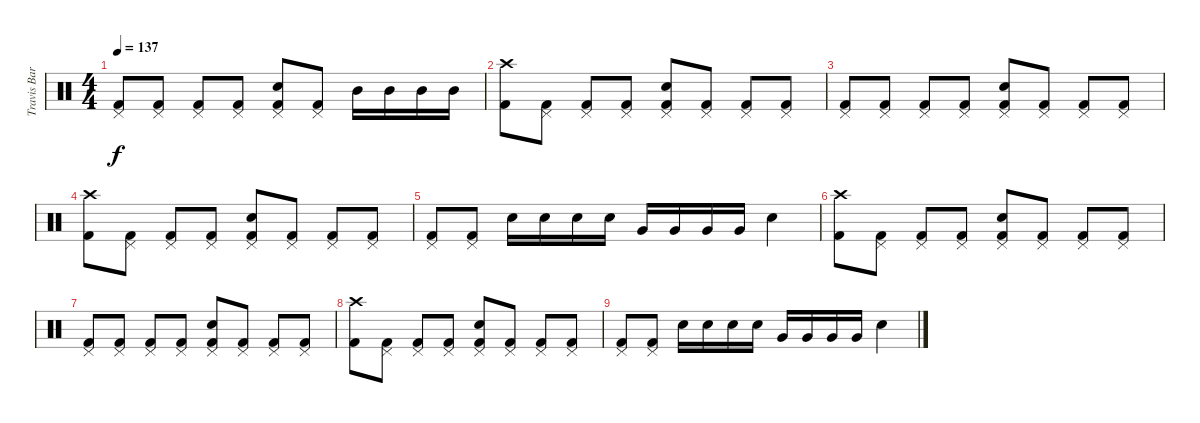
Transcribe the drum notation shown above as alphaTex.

\track ("Travis Barker" "Travis Bar") {instrument percussion}
\staff {score}
\articulation defaults
\ts (4 4)
\tempo 137
\clef neutral
\ks c
("Pedal Hi-Hat (hit)" "Kick (hit) 2").8{dy f} ("Pedal Hi-Hat (hit)" "Kick (hit) 2").8 ("Pedal Hi-Hat (hit)" "Kick (hit) 2").8 ("Pedal Hi-Hat (hit)" "Kick (hit) 2").8 ("Pedal Hi-Hat (hit)" "Snare (hit) 2" "Kick (hit) 2").8 ("Pedal Hi-Hat (hit)" "Kick (hit) 2").8 "Mid Tom (hit)".16 "Mid Tom (hit)".16 "Mid Tom (hit)".16 "Mid Tom (hit)".16 |
("Crash high (hit)" "Kick (hit) 2").8 ("Pedal Hi-Hat (hit)" "Kick (hit) 2").8 ("Pedal Hi-Hat (hit)" "Kick (hit) 2").8 ("Pedal Hi-Hat (hit)" "Kick (hit) 2").8 ("Pedal Hi-Hat (hit)" "Snare (hit) 2" "Kick (hit) 2").8 ("Pedal Hi-Hat (hit)" "Kick (hit) 2").8 ("Pedal Hi-Hat (hit)" "Kick (hit) 2").8 ("Pedal Hi-Hat (hit)" "Kick (hit) 2").8 |
("Pedal Hi-Hat (hit)" "Kick (hit) 2").8 ("Pedal Hi-Hat (hit)" "Kick (hit) 2").8 ("Pedal Hi-Hat (hit)" "Kick (hit) 2").8 ("Pedal Hi-Hat (hit)" "Kick (hit) 2").8 ("Pedal Hi-Hat (hit)" "Snare (hit) 2" "Kick (hit) 2").8 ("Pedal Hi-Hat (hit)" "Kick (hit) 2").8 ("Pedal Hi-Hat (hit)" "Kick (hit) 2").8 ("Pedal Hi-Hat (hit)" "Kick (hit) 2").8 |
("Crash high (hit)" "Kick (hit) 2").8 ("Pedal Hi-Hat (hit)" "Kick (hit) 2").8 ("Pedal Hi-Hat (hit)" "Kick (hit) 2").8 ("Pedal Hi-Hat (hit)" "Kick (hit) 2").8 ("Pedal Hi-Hat (hit)" "Snare (hit) 2" "Kick (hit) 2").8 ("Pedal Hi-Hat (hit)" "Kick (hit) 2").8 ("Pedal Hi-Hat (hit)" "Kick (hit) 2").8 ("Pedal Hi-Hat (hit)" "Kick (hit) 2").8 |
("Pedal Hi-Hat (hit)" "Kick (hit) 2").8 ("Pedal Hi-Hat (hit)" "Kick (hit) 2").8 "Snare (hit) 2".16 "Snare (hit) 2".16 "Snare (hit) 2".16 "Snare (hit) 2".16 "Very Low Tom (hit)".16 "Very Low Tom (hit)".16{volume 10} "Very Low Tom (hit)".16 "Very Low Tom (hit)".16 "Snare (hit) 2".4 |
("Crash high (hit)" "Kick (hit) 2").8 ("Pedal Hi-Hat (hit)" "Kick (hit) 2").8 ("Pedal Hi-Hat (hit)" "Kick (hit) 2").8 ("Pedal Hi-Hat (hit)" "Kick (hit) 2").8 ("Pedal Hi-Hat (hit)" "Snare (hit) 2" "Kick (hit) 2").8 ("Pedal Hi-Hat (hit)" "Kick (hit) 2").8{volume 10} ("Pedal Hi-Hat (hit)" "Kick (hit) 2").8 ("Pedal Hi-Hat (hit)" "Kick (hit) 2").8 |
("Pedal Hi-Hat (hit)" "Kick (hit) 2").8 ("Pedal Hi-Hat (hit)" "Kick (hit) 2").8 ("Pedal Hi-Hat (hit)" "Kick (hit) 2").8 ("Pedal Hi-Hat (hit)" "Kick (hit) 2").8 ("Pedal Hi-Hat (hit)" "Snare (hit) 2" "Kick (hit) 2").8 ("Pedal Hi-Hat (hit)" "Kick (hit) 2").8{volume 6} ("Pedal Hi-Hat (hit)" "Kick (hit) 2").8 ("Pedal Hi-Hat (hit)" "Kick (hit) 2").8 |
("Crash high (hit)" "Kick (hit) 2").8 ("Pedal Hi-Hat (hit)" "Kick (hit) 2").8 ("Pedal Hi-Hat (hit)" "Kick (hit) 2").8 ("Pedal Hi-Hat (hit)" "Kick (hit) 2").8 ("Pedal Hi-Hat (hit)" "Snare (hit) 2" "Kick (hit) 2").8 ("Pedal Hi-Hat (hit)" "Kick (hit) 2").8{volume 0} ("Pedal Hi-Hat (hit)" "Kick (hit) 2").8 ("Pedal Hi-Hat (hit)" "Kick (hit) 2").8 |
("Pedal Hi-Hat (hit)" "Kick (hit) 2").8 ("Pedal Hi-Hat (hit)" "Kick (hit) 2").8 "Snare (hit) 2".16 "Snare (hit) 2".16 "Snare (hit) 2".16 "Snare (hit) 2".16 "Very Low Tom (hit)".16 "Very Low Tom (hit)".16 "Very Low Tom (hit)".16 "Very Low Tom (hit)".16 "Snare (hit) 2".4
